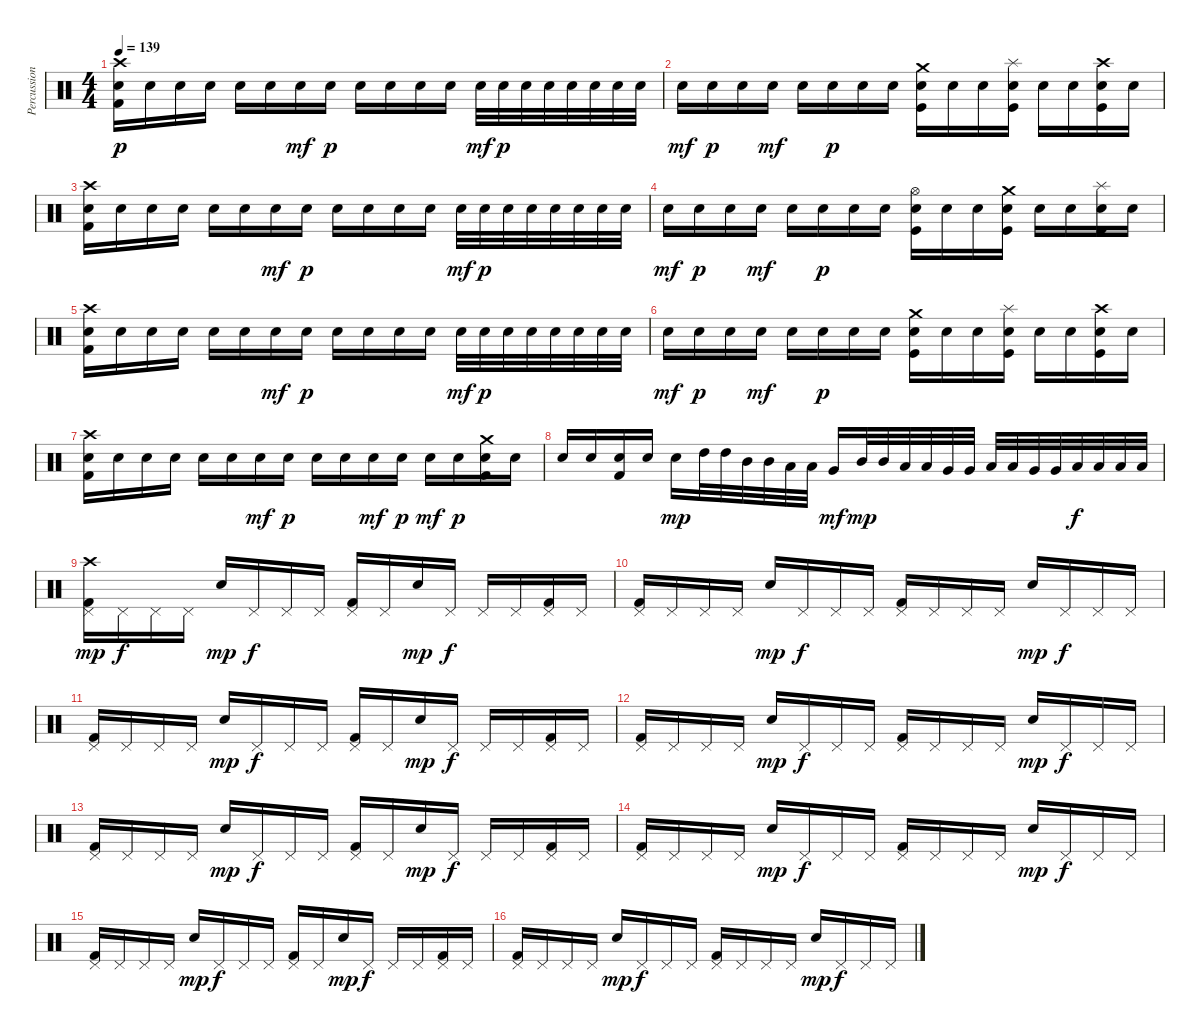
\track ("Percussion" "Percussion") {instrument percussion}
\staff {score}
\articulation defaults
\ts (4 4)
\tempo 139
\clef neutral
\ks c
("Crash high (hit)" "Electric Snare (hit)" "Kick (hit) 2").16{dy p} "Electric Snare (hit)".16 "Electric Snare (hit)".16 "Electric Snare (hit)".16 "Electric Snare (hit)".16 "Electric Snare (hit)".16 "Electric Snare (hit)".16{dy mf} "Electric Snare (hit)".16{dy p} "Electric Snare (hit)".16 "Electric Snare (hit)".16 "Electric Snare (hit)".16 "Electric Snare (hit)".16 "Electric Snare (hit)".32{dy mf} "Electric Snare (hit)".32{dy p} "Electric Snare (hit)".32 "Electric Snare (hit)".32 "Electric Snare (hit)".32 "Electric Snare (hit)".32 "Electric Snare (hit)".32 "Electric Snare (hit)".32 |
"Electric Snare (hit)".16{dy mf} "Electric Snare (hit)".16{dy p} "Electric Snare (hit)".16 "Electric Snare (hit)".16{dy mf} "Electric Snare (hit)".16 "Electric Snare (hit)".16{dy p} "Electric Snare (hit)".16 "Electric Snare (hit)".16 ("Crash medium (hit)" "Electric Snare (hit)" "Kick (hit)").16 "Electric Snare (hit)".16 "Electric Snare (hit)".16 ("Splash (hit)" "Electric Snare (hit)" "Kick (hit)").16 "Electric Snare (hit)".16 "Electric Snare (hit)".16 ("Crash high (hit)" "Electric Snare (hit)" "Kick (hit)").16 "Electric Snare (hit)".16 |
("Crash high (hit)" "Electric Snare (hit)" "Kick (hit) 2").16 "Electric Snare (hit)".16 "Electric Snare (hit)".16 "Electric Snare (hit)".16 "Electric Snare (hit)".16 "Electric Snare (hit)".16 "Electric Snare (hit)".16{dy mf} "Electric Snare (hit)".16{dy p} "Electric Snare (hit)".16 "Electric Snare (hit)".16 "Electric Snare (hit)".16 "Electric Snare (hit)".16 "Electric Snare (hit)".32{dy mf} "Electric Snare (hit)".32{dy p} "Electric Snare (hit)".32 "Electric Snare (hit)".32 "Electric Snare (hit)".32 "Electric Snare (hit)".32 "Electric Snare (hit)".32 "Electric Snare (hit)".32 |
"Electric Snare (hit)".16{dy mf} "Electric Snare (hit)".16{dy p} "Electric Snare (hit)".16 "Electric Snare (hit)".16{dy mf} "Electric Snare (hit)".16 "Electric Snare (hit)".16{dy p} "Electric Snare (hit)".16 "Electric Snare (hit)".16 ("Hi-Hat (open)" "Electric Snare (hit)" "Kick (hit)").16 "Electric Snare (hit)".16 "Electric Snare (hit)".16 ("Crash medium (hit)" "Electric Snare (hit)" "Kick (hit)").16 "Electric Snare (hit)".16 "Electric Snare (hit)".16 ("Splash (hit)" "Electric Snare (hit)" "Kick (hit)").16 "Electric Snare (hit)".16 |
("Crash high (hit)" "Electric Snare (hit)" "Kick (hit) 2").16 "Electric Snare (hit)".16 "Electric Snare (hit)".16 "Electric Snare (hit)".16 "Electric Snare (hit)".16 "Electric Snare (hit)".16 "Electric Snare (hit)".16{dy mf} "Electric Snare (hit)".16{dy p} "Electric Snare (hit)".16 "Electric Snare (hit)".16 "Electric Snare (hit)".16 "Electric Snare (hit)".16 "Electric Snare (hit)".32{dy mf} "Electric Snare (hit)".32{dy p} "Electric Snare (hit)".32 "Electric Snare (hit)".32 "Electric Snare (hit)".32 "Electric Snare (hit)".32 "Electric Snare (hit)".32 "Electric Snare (hit)".32 |
"Electric Snare (hit)".16{dy mf} "Electric Snare (hit)".16{dy p} "Electric Snare (hit)".16 "Electric Snare (hit)".16{dy mf} "Electric Snare (hit)".16 "Electric Snare (hit)".16{dy p} "Electric Snare (hit)".16 "Electric Snare (hit)".16 ("Crash medium (hit)" "Electric Snare (hit)" "Kick (hit)").16 "Electric Snare (hit)".16 "Electric Snare (hit)".16 ("Splash (hit)" "Electric Snare (hit)" "Kick (hit)").16 "Electric Snare (hit)".16 "Electric Snare (hit)".16 ("Crash high (hit)" "Electric Snare (hit)" "Kick (hit)").16 "Electric Snare (hit)".16 |
("Crash high (hit)" "Electric Snare (hit)" "Kick (hit) 2").16 "Electric Snare (hit)".16 "Electric Snare (hit)".16 "Electric Snare (hit)".16 "Electric Snare (hit)".16 "Electric Snare (hit)".16 "Electric Snare (hit)".16{dy mf} "Electric Snare (hit)".16{dy p} "Electric Snare (hit)".16 "Electric Snare (hit)".16 "Electric Snare (hit)".16{dy mf} "Electric Snare (hit)".16{dy p} "Electric Snare (hit)".16{dy mf} "Electric Snare (hit)".16{dy p} ("Crash medium (hit)" "Electric Snare (hit)" "Kick (hit) 2").16 "Electric Snare (hit)".16 |
"Electric Snare (hit)".16 "Electric Snare (hit)".16 ("Electric Snare (hit)" "Kick (hit) 2").16 "Electric Snare (hit)".16 "Electric Snare (hit)".16{dy mp} "High Tom (hit)".32 "High Tom (hit)".32 "Mid Tom (hit)".32 "Mid Tom (hit)".32 "Low Tom (hit)".32 "Low Tom (hit)".32 "Very Low Tom (hit)".16{dy mf} "Mid Tom (hit)".32{dy mp} "Mid Tom (hit)".32 "Low Tom (hit)".32 "Low Tom (hit)".32 "Very Low Tom (hit)".32 "Very Low Tom (hit)".32 "Low Tom (hit)".32 "Low Tom (hit)".32 "Very Low Tom (hit)".32 "Very Low Tom (hit)".32 "Low Floor Tom (hit)".32{dy f} "Low Floor Tom (hit)".32 "Low Floor Tom (hit)".32 "Low Floor Tom (hit)".32 |
("Kick (hit) 2" "Crash high (hit)" "Pedal Hi-Hat (hit)").16{dy mp} "Pedal Hi-Hat (hit)".16{dy f} "Pedal Hi-Hat (hit)".16 "Pedal Hi-Hat (hit)".16 "Electric Snare (hit)".16{dy mp} "Pedal Hi-Hat (hit)".16{dy f} "Pedal Hi-Hat (hit)".16 "Pedal Hi-Hat (hit)".16 ("Kick (hit) 2" "Pedal Hi-Hat (hit)").16 "Pedal Hi-Hat (hit)".16 "Electric Snare (hit)".16{dy mp} "Pedal Hi-Hat (hit)".16{dy f} "Pedal Hi-Hat (hit)".16 "Pedal Hi-Hat (hit)".16 ("Kick (hit) 2" "Pedal Hi-Hat (hit)").16 "Pedal Hi-Hat (hit)".16 |
("Kick (hit) 2" "Pedal Hi-Hat (hit)").16 "Pedal Hi-Hat (hit)".16 "Pedal Hi-Hat (hit)".16 "Pedal Hi-Hat (hit)".16 "Electric Snare (hit)".16{dy mp} "Pedal Hi-Hat (hit)".16{dy f} "Pedal Hi-Hat (hit)".16 "Pedal Hi-Hat (hit)".16 ("Kick (hit) 2" "Pedal Hi-Hat (hit)").16 "Pedal Hi-Hat (hit)".16 "Pedal Hi-Hat (hit)".16 "Pedal Hi-Hat (hit)".16 "Electric Snare (hit)".16{dy mp} "Pedal Hi-Hat (hit)".16{dy f} "Pedal Hi-Hat (hit)".16 "Pedal Hi-Hat (hit)".16 |
("Kick (hit) 2" "Pedal Hi-Hat (hit)").16 "Pedal Hi-Hat (hit)".16 "Pedal Hi-Hat (hit)".16 "Pedal Hi-Hat (hit)".16 "Electric Snare (hit)".16{dy mp} "Pedal Hi-Hat (hit)".16{dy f} "Pedal Hi-Hat (hit)".16 "Pedal Hi-Hat (hit)".16 ("Kick (hit) 2" "Pedal Hi-Hat (hit)").16 "Pedal Hi-Hat (hit)".16 "Electric Snare (hit)".16{dy mp} "Pedal Hi-Hat (hit)".16{dy f} "Pedal Hi-Hat (hit)".16 "Pedal Hi-Hat (hit)".16 ("Kick (hit) 2" "Pedal Hi-Hat (hit)").16 "Pedal Hi-Hat (hit)".16 |
("Kick (hit) 2" "Pedal Hi-Hat (hit)").16 "Pedal Hi-Hat (hit)".16 "Pedal Hi-Hat (hit)".16 "Pedal Hi-Hat (hit)".16 "Electric Snare (hit)".16{dy mp} "Pedal Hi-Hat (hit)".16{dy f} "Pedal Hi-Hat (hit)".16 "Pedal Hi-Hat (hit)".16 ("Kick (hit) 2" "Pedal Hi-Hat (hit)").16 "Pedal Hi-Hat (hit)".16 "Pedal Hi-Hat (hit)".16 "Pedal Hi-Hat (hit)".16 "Electric Snare (hit)".16{dy mp} "Pedal Hi-Hat (hit)".16{dy f} "Pedal Hi-Hat (hit)".16 "Pedal Hi-Hat (hit)".16 |
("Kick (hit) 2" "Pedal Hi-Hat (hit)").16 "Pedal Hi-Hat (hit)".16 "Pedal Hi-Hat (hit)".16 "Pedal Hi-Hat (hit)".16 "Electric Snare (hit)".16{dy mp} "Pedal Hi-Hat (hit)".16{dy f} "Pedal Hi-Hat (hit)".16 "Pedal Hi-Hat (hit)".16 ("Kick (hit) 2" "Pedal Hi-Hat (hit)").16 "Pedal Hi-Hat (hit)".16 "Electric Snare (hit)".16{dy mp} "Pedal Hi-Hat (hit)".16{dy f} "Pedal Hi-Hat (hit)".16 "Pedal Hi-Hat (hit)".16 ("Kick (hit) 2" "Pedal Hi-Hat (hit)").16 "Pedal Hi-Hat (hit)".16 |
("Kick (hit) 2" "Pedal Hi-Hat (hit)").16 "Pedal Hi-Hat (hit)".16 "Pedal Hi-Hat (hit)".16 "Pedal Hi-Hat (hit)".16 "Electric Snare (hit)".16{dy mp} "Pedal Hi-Hat (hit)".16{dy f} "Pedal Hi-Hat (hit)".16 "Pedal Hi-Hat (hit)".16 ("Kick (hit) 2" "Pedal Hi-Hat (hit)").16 "Pedal Hi-Hat (hit)".16 "Pedal Hi-Hat (hit)".16 "Pedal Hi-Hat (hit)".16 "Electric Snare (hit)".16{dy mp} "Pedal Hi-Hat (hit)".16{dy f} "Pedal Hi-Hat (hit)".16 "Pedal Hi-Hat (hit)".16 |
("Kick (hit) 2" "Pedal Hi-Hat (hit)").16 "Pedal Hi-Hat (hit)".16 "Pedal Hi-Hat (hit)".16 "Pedal Hi-Hat (hit)".16 "Electric Snare (hit)".16{dy mp} "Pedal Hi-Hat (hit)".16{dy f} "Pedal Hi-Hat (hit)".16 "Pedal Hi-Hat (hit)".16 ("Kick (hit) 2" "Pedal Hi-Hat (hit)").16 "Pedal Hi-Hat (hit)".16 "Electric Snare (hit)".16{dy mp} "Pedal Hi-Hat (hit)".16{dy f} "Pedal Hi-Hat (hit)".16 "Pedal Hi-Hat (hit)".16 ("Kick (hit) 2" "Pedal Hi-Hat (hit)").16 "Pedal Hi-Hat (hit)".16 |
("Kick (hit) 2" "Pedal Hi-Hat (hit)").16 "Pedal Hi-Hat (hit)".16 "Pedal Hi-Hat (hit)".16 "Pedal Hi-Hat (hit)".16 "Electric Snare (hit)".16{dy mp} "Pedal Hi-Hat (hit)".16{dy f} "Pedal Hi-Hat (hit)".16 "Pedal Hi-Hat (hit)".16 ("Kick (hit) 2" "Pedal Hi-Hat (hit)").16 "Pedal Hi-Hat (hit)".16 "Pedal Hi-Hat (hit)".16 "Pedal Hi-Hat (hit)".16 "Electric Snare (hit)".16{dy mp} "Pedal Hi-Hat (hit)".16{dy f} "Pedal Hi-Hat (hit)".16 "Pedal Hi-Hat (hit)".16
